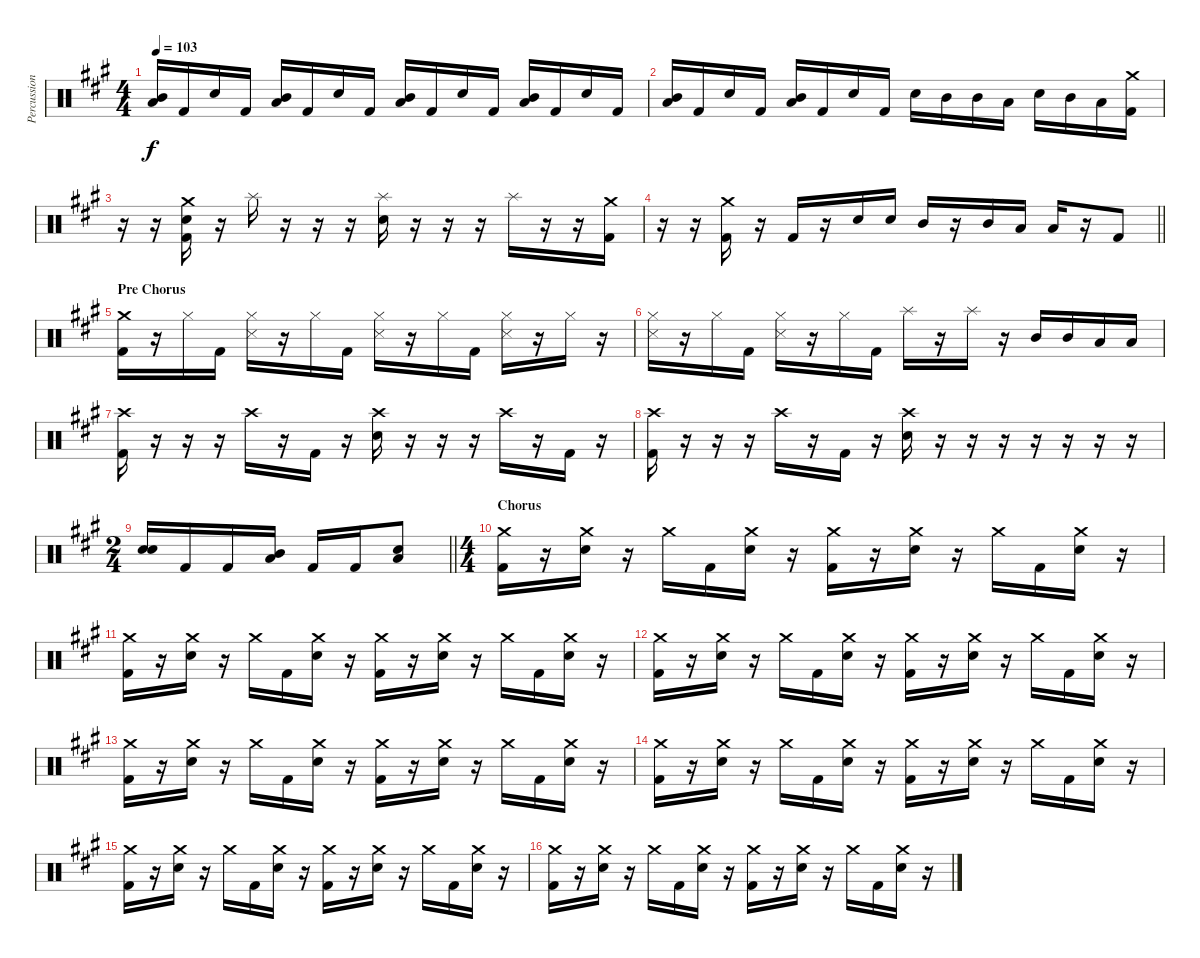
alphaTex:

\track ("Percussion" "Percussion") {instrument percussion}
\staff {score}
\articulation defaults
\ts (4 4)
\tempo 103
\clef neutral
\ks f#minor
("Mid Tom (hit)" "Low Tom (hit)").16{dy f} "Kick (hit) 2".16 "Electric Snare (hit)".16 "Kick (hit) 2".16 ("Mid Tom (hit)" "Low Tom (hit)").16 "Kick (hit) 2".16 "Electric Snare (hit)".16 "Kick (hit) 2".16 ("Mid Tom (hit)" "Low Tom (hit)").16 "Kick (hit) 2".16 "Electric Snare (hit)".16 "Kick (hit) 2".16 ("Mid Tom (hit)" "Low Tom (hit)").16 "Kick (hit) 2".16 "Electric Snare (hit)".16 "Kick (hit) 2".16 |
("Mid Tom (hit)" "Low Tom (hit)").16 "Kick (hit) 2".16 "Electric Snare (hit)".16 "Kick (hit) 2".16 ("Mid Tom (hit)" "Low Tom (hit)").16 "Kick (hit) 2".16 "Electric Snare (hit)".16 "Kick (hit) 2".16 "Electric Snare (hit)".16 "Mid Tom (hit)".16 "Mid Tom (hit)".16 "Low Tom (hit)".16 "Electric Snare (hit)".16 "Mid Tom (hit)".16 "Low Tom (hit)".16 ("Crash medium (hit)" "Kick (hit) 2").16 |
r.16 r.16 ("Crash medium (hit)" "Electric Snare (hit)" "Kick (hit) 2").16 r.16 "Splash (hit)".16 r.16 r.16 r.16 ("Splash (hit)" "Electric Snare (hit)").16 r.16 r.16 r.16 "Splash (hit)".16 r.16 r.16 ("Crash medium (hit)" "Kick (hit) 2").16 |
\barLineRight lightlight
r.16 r.16 ("Crash medium (hit)" "Kick (hit) 2").16 r.16 "Kick (hit) 2".16 r.16 "Electric Snare (hit)".16 "Electric Snare (hit)".16 "Mid Tom (hit)".16 r.16 "Mid Tom (hit)".16 "Low Tom (hit)".16 "Low Tom (hit)".16 r.16 "Kick (hit) 2".8 |
\section ("" "Pre Chorus")
("Crash medium (hit)" "Kick (hit) 2").16 r.16 "Hi-Hat (closed)".16 "Kick (hit) 2".16 ("Hi-Hat (closed)" "Snare (side stick) 3").16 r.16 "Hi-Hat (closed)".16 "Kick (hit) 2".16 ("Hi-Hat (closed)" "Snare (side stick) 3").16 r.16 "Hi-Hat (closed)".16 "Kick (hit) 2".16 ("Hi-Hat (closed)" "Snare (side stick) 3").16 r.16 "Hi-Hat (closed)".16 r.16 |
("Hi-Hat (closed)" "Snare (side stick) 3").16 r.16 "Hi-Hat (closed)".16 "Kick (hit) 2".16 ("Hi-Hat (closed)" "Snare (side stick) 3").16 r.16 "Hi-Hat (closed)".16 "Kick (hit) 2".16 "Splash (hit)".16 r.16 "Splash (hit)".16 r.16 "Mid Tom (hit)".16 "Mid Tom (hit)".16 "Low Tom (hit)".16 "Low Tom (hit)".16 |
("Crash high (hit)" "Kick (hit) 2").16 r.16 r.16 r.16 "Crash high (hit)".16 r.16 "Kick (hit) 2".16 r.16 ("Crash high (hit)" "Electric Snare (hit)").16 r.16 r.16 r.16 "Crash high (hit)".16 r.16 "Kick (hit) 2".16 r.16 |
("Crash high (hit)" "Kick (hit) 2").16 r.16 r.16 r.16 "Crash high (hit)".16 r.16 "Kick (hit) 2".16 r.16 ("Crash high (hit)" "Electric Snare (hit)").16 r.16 r.16 r.16 r.16 r.16 r.16 r.16 |
\ts (2 4)
\barLineRight lightlight
("Electric Snare (hit)" "Electric Snare (hit)").16 "Kick (hit) 2".16 "Kick (hit) 2".16 ("Mid Tom (hit)" "Low Tom (hit)").16 "Kick (hit) 2".16 "Kick (hit) 2".16 ("Low Tom (hit)" "Electric Snare (hit)").8 |
\ts (4 4)
\section ("" "Chorus")
("Crash medium (hit)" "Kick (hit) 2").16 r.16 ("Crash medium (hit)" "Electric Snare (hit)").16 r.16 "Crash medium (hit)".16 "Kick (hit) 2".16 ("Crash medium (hit)" "Electric Snare (hit)").16 r.16 ("Crash medium (hit)" "Kick (hit) 2").16 r.16 ("Crash medium (hit)" "Electric Snare (hit)").16 r.16 "Crash medium (hit)".16 "Kick (hit) 2".16 ("Crash medium (hit)" "Electric Snare (hit)").16 r.16 |
("Crash medium (hit)" "Kick (hit) 2").16 r.16 ("Crash medium (hit)" "Electric Snare (hit)").16 r.16 "Crash medium (hit)".16 "Kick (hit) 2".16 ("Crash medium (hit)" "Electric Snare (hit)").16 r.16 ("Crash medium (hit)" "Kick (hit) 2").16 r.16 ("Crash medium (hit)" "Electric Snare (hit)").16 r.16 "Crash medium (hit)".16 "Kick (hit) 2".16 ("Crash medium (hit)" "Electric Snare (hit)").16 r.16 |
("Crash medium (hit)" "Kick (hit) 2").16 r.16 ("Crash medium (hit)" "Electric Snare (hit)").16 r.16 "Crash medium (hit)".16 "Kick (hit) 2".16 ("Crash medium (hit)" "Electric Snare (hit)").16 r.16 ("Crash medium (hit)" "Kick (hit) 2").16 r.16 ("Crash medium (hit)" "Electric Snare (hit)").16 r.16 "Crash medium (hit)".16 "Kick (hit) 2".16 ("Crash medium (hit)" "Electric Snare (hit)").16 r.16 |
("Crash medium (hit)" "Kick (hit) 2").16 r.16 ("Crash medium (hit)" "Electric Snare (hit)").16 r.16 "Crash medium (hit)".16 "Kick (hit) 2".16 ("Crash medium (hit)" "Electric Snare (hit)").16 r.16 ("Crash medium (hit)" "Kick (hit) 2").16 r.16 ("Crash medium (hit)" "Electric Snare (hit)").16 r.16 "Crash medium (hit)".16 "Kick (hit) 2".16 ("Crash medium (hit)" "Electric Snare (hit)").16 r.16 |
("Crash medium (hit)" "Kick (hit) 2").16 r.16 ("Crash medium (hit)" "Electric Snare (hit)").16 r.16 "Crash medium (hit)".16 "Kick (hit) 2".16 ("Crash medium (hit)" "Electric Snare (hit)").16 r.16 ("Crash medium (hit)" "Kick (hit) 2").16 r.16 ("Crash medium (hit)" "Electric Snare (hit)").16 r.16 "Crash medium (hit)".16 "Kick (hit) 2".16 ("Crash medium (hit)" "Electric Snare (hit)").16 r.16 |
("Crash medium (hit)" "Kick (hit) 2").16 r.16 ("Crash medium (hit)" "Electric Snare (hit)").16 r.16 "Crash medium (hit)".16 "Kick (hit) 2".16 ("Crash medium (hit)" "Electric Snare (hit)").16 r.16 ("Crash medium (hit)" "Kick (hit) 2").16 r.16 ("Crash medium (hit)" "Electric Snare (hit)").16 r.16 "Crash medium (hit)".16 "Kick (hit) 2".16 ("Crash medium (hit)" "Electric Snare (hit)").16 r.16 |
("Crash medium (hit)" "Kick (hit) 2").16 r.16 ("Crash medium (hit)" "Electric Snare (hit)").16 r.16 "Crash medium (hit)".16 "Kick (hit) 2".16 ("Crash medium (hit)" "Electric Snare (hit)").16 r.16 ("Crash medium (hit)" "Kick (hit) 2").16 r.16 ("Crash medium (hit)" "Electric Snare (hit)").16 r.16 "Crash medium (hit)".16 "Kick (hit) 2".16 ("Crash medium (hit)" "Electric Snare (hit)").16 r.16
